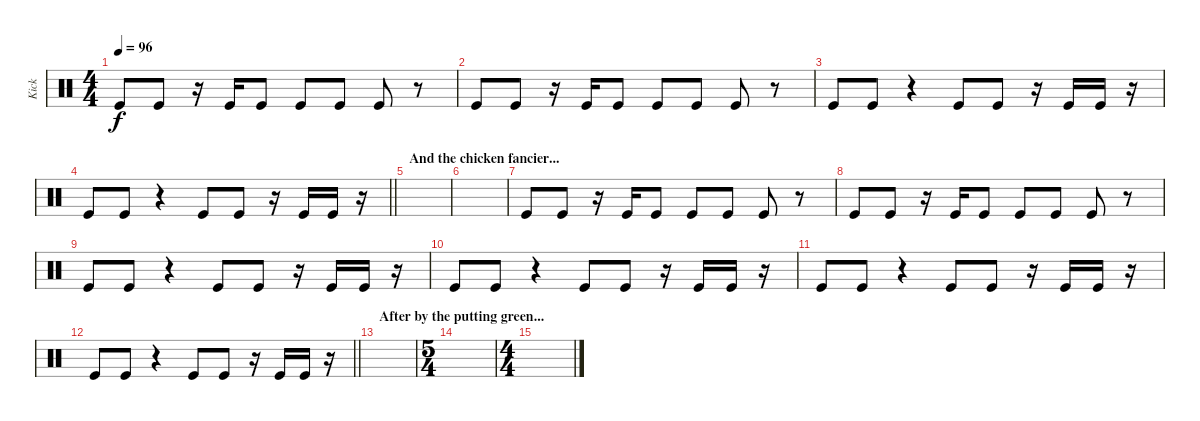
\track ("Kick" "Kick") {instrument percussion}
\staff {score}
\articulation defaults
\ts (4 4)
\tempo 96
\clef neutral
\ks c "Kick (hit)".8{dy f} "Kick (hit)".8
r.16 "Kick (hit)".16 "Kick (hit)".8 "Kick (hit)".8 "Kick (hit)".8 "Kick (hit)".8 r.8 |
"Kick (hit)".8 "Kick (hit)".8 r.16 "Kick (hit)".16 "Kick (hit)".8 "Kick (hit)".8 "Kick (hit)".8 "Kick (hit)".8 r.8 |
"Kick (hit)".8 "Kick (hit)".8 r.4 "Kick (hit)".8 "Kick (hit)".8 r.16 "Kick (hit)".16 "Kick (hit)".16 r.16 |
\barLineRight lightlight "Kick (hit)".8 "Kick (hit)".8
r.4 "Kick (hit)".8 "Kick (hit)".8 r.16 "Kick (hit)".16 "Kick (hit)".16 r.16 |
\section ("" "And the chicken fancier...")
|
|
"Kick (hit)".8 "Kick (hit)".8 r.16 "Kick (hit)".16 "Kick (hit)".8 "Kick (hit)".8 "Kick (hit)".8 "Kick (hit)".8 r.8 |
"Kick (hit)".8 "Kick (hit)".8 r.16 "Kick (hit)".16 "Kick (hit)".8 "Kick (hit)".8 "Kick (hit)".8 "Kick (hit)".8 r.8 |
"Kick (hit)".8 "Kick (hit)".8 r.4 "Kick (hit)".8 "Kick (hit)".8 r.16 "Kick (hit)".16 "Kick (hit)".16 r.16 |
"Kick (hit)".8 "Kick (hit)".8 r.4 "Kick (hit)".8 "Kick (hit)".8 r.16 "Kick (hit)".16 "Kick (hit)".16 r.16 |
"Kick (hit)".8 "Kick (hit)".8 r.4 "Kick (hit)".8 "Kick (hit)".8 r.16 "Kick (hit)".16 "Kick (hit)".16 r.16 |
\barLineRight lightlight "Kick (hit)".8 "Kick (hit)".8
r.4 "Kick (hit)".8 "Kick (hit)".8 r.16 "Kick (hit)".16 "Kick (hit)".16 r.16 |
\section ("" "After by the putting green...")
|
\ts (5 4)
|
\ts (4 4)
